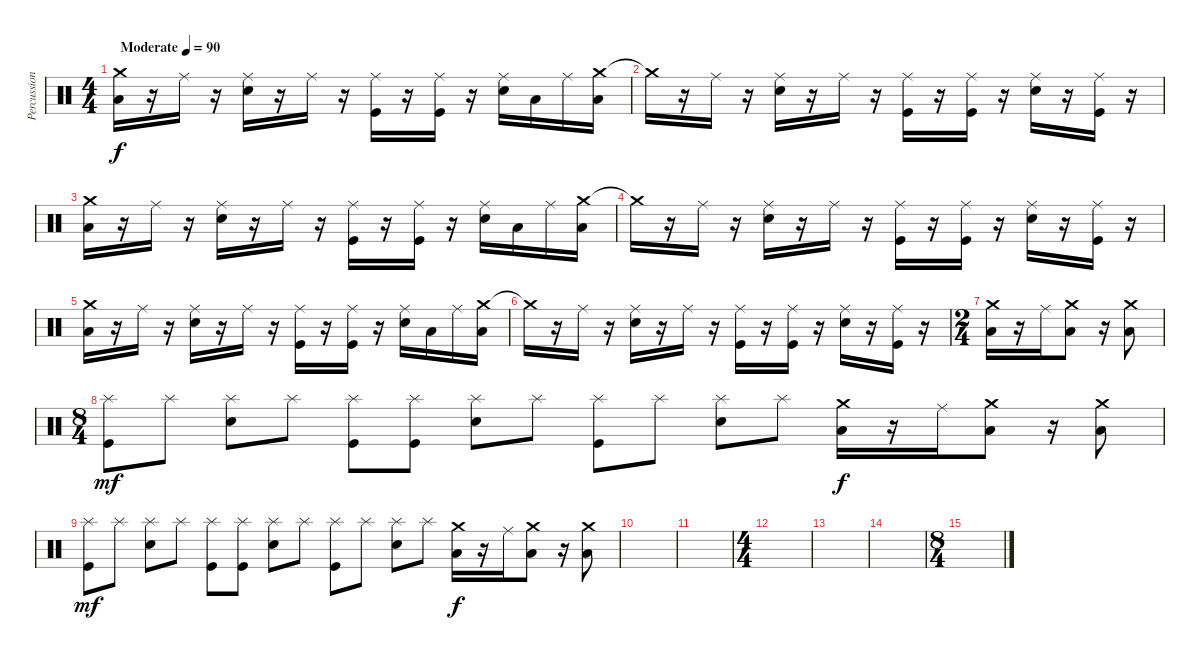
\track ("Percussion" "Percussion") {instrument percussion}
\staff {score}
\articulation defaults
\ts (4 4)
\tempo (90 "Moderate")
\clef neutral
\ks c
("Crash medium (hit)" "Low Floor Tom (hit)").16{dy f} r.16 "Ride (middle)".16 r.16 ("Ride (middle)" "Electric Snare (hit)").16 r.16 "Ride (middle)".16 r.16 ("Ride (middle)" "Kick (hit)").16 r.16 ("Ride (middle)" "Kick (hit)").16 r.16 ("Ride (middle)" "Electric Snare (hit)").16 "Low Floor Tom (hit)".16 "Ride (middle)".16 ("Crash medium (hit)" "Low Floor Tom (hit)").16 |
"Crash medium (hit)"{t}.16 r.16 "Ride (middle)".16 r.16 ("Ride (middle)" "Electric Snare (hit)").16 r.16 "Ride (middle)".16 r.16 ("Ride (middle)" "Kick (hit)").16 r.16 ("Ride (middle)" "Kick (hit)").16 r.16 ("Ride (middle)" "Electric Snare (hit)").16 r.16 ("Ride (middle)" "Kick (hit)").16 r.16 |
("Crash medium (hit)" "Low Floor Tom (hit)").16 r.16 "Ride (middle)".16 r.16 ("Ride (middle)" "Electric Snare (hit)").16 r.16 "Ride (middle)".16 r.16 ("Ride (middle)" "Kick (hit)").16 r.16 ("Ride (middle)" "Kick (hit)").16 r.16 ("Ride (middle)" "Electric Snare (hit)").16 "Low Floor Tom (hit)".16 "Ride (middle)".16 ("Crash medium (hit)" "Low Floor Tom (hit)").16 |
"Crash medium (hit)"{t}.16 r.16 "Ride (middle)".16 r.16 ("Ride (middle)" "Electric Snare (hit)").16 r.16 "Ride (middle)".16 r.16 ("Ride (middle)" "Kick (hit)").16 r.16 ("Ride (middle)" "Kick (hit)").16 r.16 ("Ride (middle)" "Electric Snare (hit)").16 r.16 ("Ride (middle)" "Kick (hit)").16 r.16 |
("Crash medium (hit)" "Low Floor Tom (hit)").16 r.16 "Ride (middle)".16 r.16 ("Ride (middle)" "Electric Snare (hit)").16 r.16 "Ride (middle)".16 r.16 ("Ride (middle)" "Kick (hit)").16 r.16 ("Ride (middle)" "Kick (hit)").16 r.16 ("Ride (middle)" "Electric Snare (hit)").16 "Low Floor Tom (hit)".16 "Ride (middle)".16 ("Crash medium (hit)" "Low Floor Tom (hit)").16 |
"Crash medium (hit)"{t}.16 r.16 "Ride (middle)".16 r.16 ("Ride (middle)" "Electric Snare (hit)").16 r.16 "Ride (middle)".16 r.16 ("Ride (middle)" "Kick (hit)").16 r.16 ("Ride (middle)" "Kick (hit)").16 r.16 ("Ride (middle)" "Electric Snare (hit)").16 r.16 ("Ride (middle)" "Kick (hit)").16 r.16 |
\ts (2 4)
("Crash medium (hit)" "Low Floor Tom (hit)").16 r.16 "Ride (middle)".16 ("Crash medium (hit)" "Low Floor Tom (hit)").8 r.16 ("Crash medium (hit)" "Low Floor Tom (hit)").8 |
\ts (8 4)
("Splash (hit)" "Kick (hit)").8{dy mf} "Splash (hit)".8 ("Splash (hit)" "Electric Snare (hit)").8 "Splash (hit)".8 ("Splash (hit)" "Kick (hit)").8 ("Splash (hit)" "Kick (hit)").8 ("Splash (hit)" "Electric Snare (hit)").8 "Splash (hit)".8 ("Splash (hit)" "Kick (hit)").8 "Splash (hit)".8 ("Splash (hit)" "Electric Snare (hit)").8 "Splash (hit)".8 ("Crash medium (hit)" "Low Floor Tom (hit)").16{dy f} r.16 "Ride (middle)".16 ("Crash medium (hit)" "Low Floor Tom (hit)").8 r.16 ("Crash medium (hit)" "Low Floor Tom (hit)").8 |
("Splash (hit)" "Kick (hit)").8{dy mf} "Splash (hit)".8 ("Splash (hit)" "Electric Snare (hit)").8 "Splash (hit)".8 ("Splash (hit)" "Kick (hit)").8 ("Splash (hit)" "Kick (hit)").8 ("Splash (hit)" "Electric Snare (hit)").8 "Splash (hit)".8 ("Splash (hit)" "Kick (hit)").8 "Splash (hit)".8 ("Splash (hit)" "Electric Snare (hit)").8 "Splash (hit)".8 ("Crash medium (hit)" "Low Floor Tom (hit)").16{dy f} r.16 "Ride (middle)".16 ("Crash medium (hit)" "Low Floor Tom (hit)").8 r.16 ("Crash medium (hit)" "Low Floor Tom (hit)").8 |
|
|
\ts (4 4)
|
|
|
\ts (8 4)
